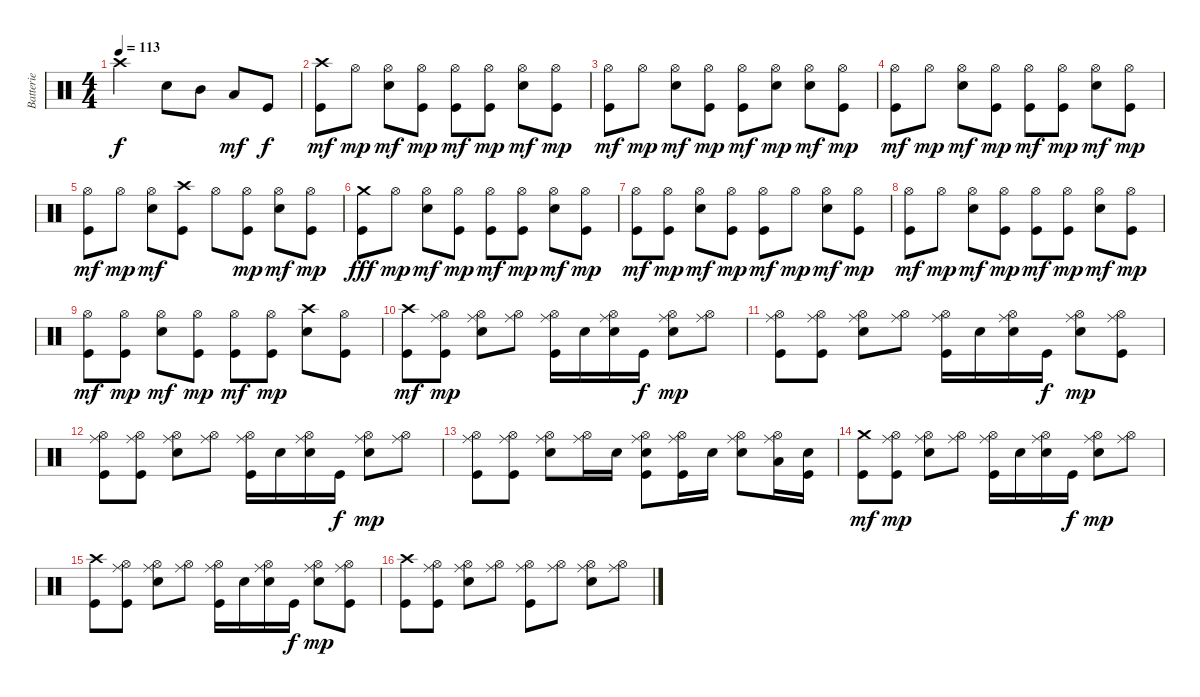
\track ("Batterie" "Batterie") {instrument percussion}
\staff {score}
\articulation defaults
\ts (4 4)
\tempo 113
\clef neutral
\ks c "Crash high (hit)".2{dy f} "Electric Snare (hit)".8 "Mid Tom (hit)".8 "Low Tom (hit)".8{dy mf} "Kick (hit)".8{dy f}
|
("Kick (hit)" "Crash high (hit)").8{dy mf} "Hi-Hat (open)".8{dy mp} ("Electric Snare (hit)" "Hi-Hat (open)").8{dy mf} ("Kick (hit)" "Hi-Hat (open)").8{dy mp} ("Kick (hit)" "Hi-Hat (open)").8{dy mf} ("Kick (hit)" "Hi-Hat (open)").8{dy mp} ("Electric Snare (hit)" "Hi-Hat (open)").8{dy mf} ("Kick (hit)" "Hi-Hat (open)").8{dy mp} |
("Kick (hit)" "Hi-Hat (open)").8{dy mf} "Hi-Hat (open)".8{dy mp} ("Electric Snare (hit)" "Hi-Hat (open)").8{dy mf} ("Kick (hit)" "Hi-Hat (open)").8{dy mp} ("Kick (hit)" "Hi-Hat (open)").8{dy mf} ("Electric Snare (hit)" "Hi-Hat (open)").8{dy mp} ("Electric Snare (hit)" "Hi-Hat (open)").8{dy mf} ("Kick (hit)" "Hi-Hat (open)").8{dy mp} |
("Kick (hit)" "Hi-Hat (open)").8{dy mf} "Hi-Hat (open)".8{dy mp} ("Electric Snare (hit)" "Hi-Hat (open)").8{dy mf} ("Kick (hit)" "Hi-Hat (open)").8{dy mp} ("Kick (hit)" "Hi-Hat (open)").8{dy mf} ("Kick (hit)" "Hi-Hat (open)").8{dy mp} ("Electric Snare (hit)" "Hi-Hat (open)").8{dy mf} ("Kick (hit)" "Hi-Hat (open)").8{dy mp} |
("Kick (hit)" "Hi-Hat (open)").8{dy mf} "Hi-Hat (open)".8{dy mp} ("Electric Snare (hit)" "Hi-Hat (open)").8{dy mf} ("Kick (hit)" "Crash high (hit)").8 "Hi-Hat (open)".8 ("Kick (hit)" "Hi-Hat (open)").8{dy mp} ("Electric Snare (hit)" "Hi-Hat (open)").8{dy mf} ("Kick (hit)" "Hi-Hat (open)").8{dy mp} |
("Kick (hit)" "Crash medium (hit)").8{dy fff} "Hi-Hat (open)".8{dy mp} ("Electric Snare (hit)" "Hi-Hat (open)").8{dy mf} ("Kick (hit)" "Hi-Hat (open)").8{dy mp} ("Kick (hit)" "Hi-Hat (open)").8{dy mf} ("Kick (hit)" "Hi-Hat (open)").8{dy mp} ("Electric Snare (hit)" "Hi-Hat (open)").8{dy mf} ("Kick (hit)" "Hi-Hat (open)").8{dy mp} |
("Kick (hit)" "Hi-Hat (open)").8{dy mf} ("Kick (hit)" "Hi-Hat (open)").8{dy mp} ("Electric Snare (hit)" "Hi-Hat (open)").8{dy mf} ("Kick (hit)" "Hi-Hat (open)").8{dy mp} ("Kick (hit)" "Hi-Hat (open)").8{dy mf} "Hi-Hat (open)".8{dy mp} ("Electric Snare (hit)" "Hi-Hat (open)").8{dy mf} ("Kick (hit)" "Hi-Hat (open)").8{dy mp} |
("Kick (hit)" "Hi-Hat (open)").8{dy mf} "Hi-Hat (open)".8{dy mp} ("Electric Snare (hit)" "Hi-Hat (open)").8{dy mf} ("Kick (hit)" "Hi-Hat (open)").8{dy mp} ("Kick (hit)" "Hi-Hat (open)").8{dy mf} ("Kick (hit)" "Hi-Hat (open)").8{dy mp} ("Electric Snare (hit)" "Hi-Hat (open)").8{dy mf} ("Kick (hit)" "Hi-Hat (open)").8{dy mp} |
("Kick (hit)" "Hi-Hat (open)").8{dy mf} ("Kick (hit)" "Hi-Hat (open)").8{dy mp} ("Electric Snare (hit)" "Hi-Hat (open)").8{dy mf} ("Kick (hit)" "Hi-Hat (open)").8{dy mp} ("Kick (hit)" "Hi-Hat (open)").8{dy mf} ("Kick (hit)" "Hi-Hat (open)").8{dy mp} ("Electric Snare (hit)" "Crash high (hit)").8 ("Kick (hit)" "Hi-Hat (open)").8 |
("Kick (hit)" "Crash high (hit)").8{dy mf} ("Kick (hit)" "Hi-Hat (open)" "Ride (middle)").8{dy mp} ("Electric Snare (hit)" "Hi-Hat (open)" "Ride (middle)").8 ("Hi-Hat (open)" "Ride (middle)").8 ("Kick (hit)" "Hi-Hat (open)" "Ride (middle)").16 "Electric Snare (hit)".16 ("Electric Snare (hit)" "Hi-Hat (open)" "Ride (middle)").16 "Kick (hit)".16{dy f} ("Electric Snare (hit)" "Hi-Hat (open)" "Ride (middle)").8{dy mp} ("Hi-Hat (open)" "Ride (middle)").8 |
("Kick (hit)" "Hi-Hat (open)" "Ride (middle)").8 ("Kick (hit)" "Hi-Hat (open)" "Ride (middle)").8 ("Electric Snare (hit)" "Hi-Hat (open)" "Ride (middle)").8 ("Hi-Hat (open)" "Ride (middle)").8 ("Kick (hit)" "Hi-Hat (open)" "Ride (middle)").16 "Electric Snare (hit)".16 ("Electric Snare (hit)" "Hi-Hat (open)" "Ride (middle)").16 "Kick (hit)".16{dy f} ("Electric Snare (hit)" "Hi-Hat (open)" "Ride (middle)").8{dy mp} ("Kick (hit)" "Hi-Hat (open)" "Ride (middle)").8 |
("Kick (hit)" "Hi-Hat (open)" "Ride (middle)").8 ("Kick (hit)" "Hi-Hat (open)" "Ride (middle)").8 ("Electric Snare (hit)" "Hi-Hat (open)" "Ride (middle)").8 ("Hi-Hat (open)" "Ride (middle)").8 ("Kick (hit)" "Hi-Hat (open)" "Ride (middle)").16 "Electric Snare (hit)".16 ("Electric Snare (hit)" "Hi-Hat (open)" "Ride (middle)").16 "Kick (hit)".16{dy f} ("Electric Snare (hit)" "Hi-Hat (open)" "Ride (middle)").8{dy mp} ("Hi-Hat (open)" "Ride (middle)").8 |
("Kick (hit)" "Hi-Hat (open)" "Ride (middle)").8 ("Kick (hit)" "Hi-Hat (open)" "Ride (middle)").8 ("Electric Snare (hit)" "Hi-Hat (open)" "Ride (middle)").8 ("Hi-Hat (open)" "Ride (middle)").16 "Electric Snare (hit)".16 ("Kick (hit)" "Electric Snare (hit)" "Hi-Hat (open)" "Ride (middle)").8 ("Kick (hit)" "Hi-Hat (open)" "Ride (middle)").16 "Electric Snare (hit)".16 ("Electric Snare (hit)" "Hi-Hat (open)" "Ride (middle)").8 ("Hi-Hat (open)" "Ride (middle)" "Low Tom (hit)").16 ("Kick (hit)" "Electric Snare (hit)").16 |
("Kick (hit)" "Crash medium (hit)").8{dy mf} ("Kick (hit)" "Hi-Hat (open)" "Ride (middle)").8{dy mp} ("Electric Snare (hit)" "Hi-Hat (open)" "Ride (middle)").8 ("Hi-Hat (open)" "Ride (middle)").8 ("Kick (hit)" "Hi-Hat (open)" "Ride (middle)").16 "Electric Snare (hit)".16 ("Electric Snare (hit)" "Hi-Hat (open)" "Ride (middle)").16 "Kick (hit)".16{dy f} ("Electric Snare (hit)" "Hi-Hat (open)" "Ride (middle)").8{dy mp} ("Hi-Hat (open)" "Ride (middle)").8 |
("Kick (hit)" "Crash high (hit)").8 ("Kick (hit)" "Hi-Hat (open)" "Ride (middle)").8 ("Electric Snare (hit)" "Hi-Hat (open)" "Ride (middle)").8 ("Hi-Hat (open)" "Ride (middle)").8 ("Kick (hit)" "Hi-Hat (open)" "Ride (middle)").16 "Electric Snare (hit)".16 ("Electric Snare (hit)" "Hi-Hat (open)" "Ride (middle)").16 "Kick (hit)".16{dy f} ("Electric Snare (hit)" "Hi-Hat (open)" "Ride (middle)").8{dy mp} ("Kick (hit)" "Hi-Hat (open)" "Ride (middle)").8 |
("Kick (hit)" "Crash high (hit)").8 ("Kick (hit)" "Hi-Hat (open)" "Ride (middle)").8 ("Electric Snare (hit)" "Hi-Hat (open)" "Ride (middle)").8 ("Hi-Hat (open)" "Ride (middle)").8 ("Kick (hit)" "Hi-Hat (open)" "Ride (middle)").8 ("Hi-Hat (open)" "Ride (middle)").8 ("Electric Snare (hit)" "Hi-Hat (open)" "Ride (middle)").8 ("Hi-Hat (open)" "Ride (middle)").8
